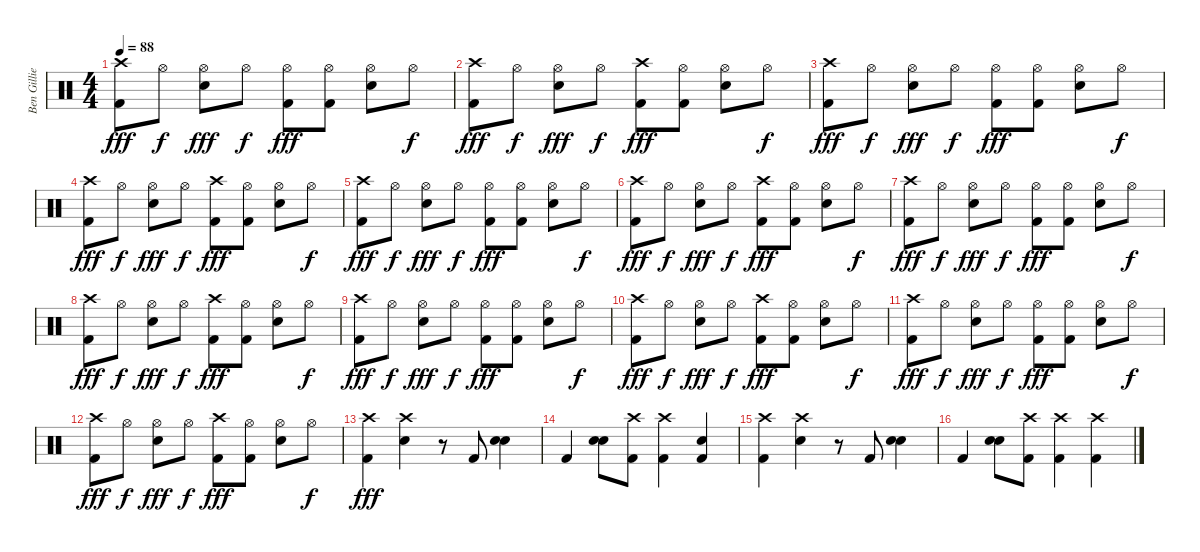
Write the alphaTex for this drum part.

\track ("Ben Gillies (Drums)" "Ben Gillie") {instrument percussion}
\staff {score}
\articulation defaults
\ts (4 4)
\tempo 88
\clef neutral
\ks c
("Crash high (hit)" "Kick (hit) 2").8{dy fff} "Hi-Hat (open)".8{dy f} ("Hi-Hat (open)" "Electric Snare (hit)").8{dy fff} "Hi-Hat (open)".8{dy f} ("Hi-Hat (open)" "Kick (hit) 2").8{dy fff} ("Hi-Hat (open)" "Kick (hit) 2").8 ("Hi-Hat (open)" "Electric Snare (hit)").8 "Hi-Hat (open)".8{dy f} |
("Crash high (hit)" "Kick (hit) 2").8{dy fff} "Hi-Hat (open)".8{dy f} ("Hi-Hat (open)" "Electric Snare (hit)").8{dy fff} "Hi-Hat (open)".8{dy f} ("Crash high (hit)" "Kick (hit) 2").8{dy fff} ("Hi-Hat (open)" "Kick (hit) 2").8 ("Hi-Hat (open)" "Electric Snare (hit)").8 "Hi-Hat (open)".8{dy f} |
("Crash high (hit)" "Kick (hit) 2").8{dy fff} "Hi-Hat (open)".8{dy f} ("Hi-Hat (open)" "Electric Snare (hit)").8{dy fff} "Hi-Hat (open)".8{dy f} ("Hi-Hat (open)" "Kick (hit) 2").8{dy fff} ("Hi-Hat (open)" "Kick (hit) 2").8 ("Hi-Hat (open)" "Electric Snare (hit)").8 "Hi-Hat (open)".8{dy f} |
("Crash high (hit)" "Kick (hit) 2").8{dy fff} "Hi-Hat (open)".8{dy f} ("Hi-Hat (open)" "Electric Snare (hit)").8{dy fff} "Hi-Hat (open)".8{dy f} ("Crash high (hit)" "Kick (hit) 2").8{dy fff} ("Hi-Hat (open)" "Kick (hit) 2").8 ("Hi-Hat (open)" "Electric Snare (hit)").8 "Hi-Hat (open)".8{dy f} |
("Crash high (hit)" "Kick (hit) 2").8{dy fff} "Hi-Hat (open)".8{dy f} ("Hi-Hat (open)" "Electric Snare (hit)").8{dy fff} "Hi-Hat (open)".8{dy f} ("Hi-Hat (open)" "Kick (hit) 2").8{dy fff} ("Hi-Hat (open)" "Kick (hit) 2").8 ("Hi-Hat (open)" "Electric Snare (hit)").8 "Hi-Hat (open)".8{dy f} |
("Crash high (hit)" "Kick (hit) 2").8{dy fff} "Hi-Hat (open)".8{dy f} ("Hi-Hat (open)" "Electric Snare (hit)").8{dy fff} "Hi-Hat (open)".8{dy f} ("Crash high (hit)" "Kick (hit) 2").8{dy fff} ("Hi-Hat (open)" "Kick (hit) 2").8 ("Hi-Hat (open)" "Electric Snare (hit)").8 "Hi-Hat (open)".8{dy f} |
("Crash high (hit)" "Kick (hit) 2").8{dy fff} "Hi-Hat (open)".8{dy f} ("Hi-Hat (open)" "Electric Snare (hit)").8{dy fff} "Hi-Hat (open)".8{dy f} ("Hi-Hat (open)" "Kick (hit) 2").8{dy fff} ("Hi-Hat (open)" "Kick (hit) 2").8 ("Hi-Hat (open)" "Electric Snare (hit)").8 "Hi-Hat (open)".8{dy f} |
("Crash high (hit)" "Kick (hit) 2").8{dy fff} "Hi-Hat (open)".8{dy f} ("Hi-Hat (open)" "Electric Snare (hit)").8{dy fff} "Hi-Hat (open)".8{dy f} ("Crash high (hit)" "Kick (hit) 2").8{dy fff} ("Hi-Hat (open)" "Kick (hit) 2").8 ("Hi-Hat (open)" "Electric Snare (hit)").8 "Hi-Hat (open)".8{dy f} |
("Crash high (hit)" "Kick (hit) 2").8{dy fff} "Hi-Hat (open)".8{dy f} ("Hi-Hat (open)" "Electric Snare (hit)").8{dy fff} "Hi-Hat (open)".8{dy f} ("Hi-Hat (open)" "Kick (hit) 2").8{dy fff} ("Hi-Hat (open)" "Kick (hit) 2").8 ("Hi-Hat (open)" "Electric Snare (hit)").8 "Hi-Hat (open)".8{dy f} |
("Crash high (hit)" "Kick (hit) 2").8{dy fff} "Hi-Hat (open)".8{dy f} ("Hi-Hat (open)" "Electric Snare (hit)").8{dy fff} "Hi-Hat (open)".8{dy f} ("Crash high (hit)" "Kick (hit) 2").8{dy fff} ("Hi-Hat (open)" "Kick (hit) 2").8 ("Hi-Hat (open)" "Electric Snare (hit)").8 "Hi-Hat (open)".8{dy f} |
("Crash high (hit)" "Kick (hit) 2").8{dy fff} "Hi-Hat (open)".8{dy f} ("Hi-Hat (open)" "Electric Snare (hit)").8{dy fff} "Hi-Hat (open)".8{dy f} ("Hi-Hat (open)" "Kick (hit) 2").8{dy fff} ("Hi-Hat (open)" "Kick (hit) 2").8 ("Hi-Hat (open)" "Electric Snare (hit)").8 "Hi-Hat (open)".8{dy f} |
("Crash high (hit)" "Kick (hit) 2").8{dy fff} "Hi-Hat (open)".8{dy f} ("Hi-Hat (open)" "Electric Snare (hit)").8{dy fff} "Hi-Hat (open)".8{dy f} ("Crash high (hit)" "Kick (hit) 2").8{dy fff} ("Hi-Hat (open)" "Kick (hit) 2").8 ("Hi-Hat (open)" "Electric Snare (hit)").8 "Hi-Hat (open)".8{dy f} |
("Crash high (hit)" "Kick (hit) 2").4{dy fff} ("Crash high (hit)" "Electric Snare (hit)").4 r.8 "Kick (hit) 2".8 ("Electric Snare (hit)" "Electric Snare (hit)").4 |
"Kick (hit) 2".4 ("Electric Snare (hit)" "Electric Snare (hit)").8 ("Crash high (hit)" "Kick (hit) 2").8 ("Crash high (hit)" "Kick (hit) 2").4 ("Electric Snare (hit)" "Kick (hit) 2").4 |
("Crash high (hit)" "Kick (hit) 2").4 ("Crash high (hit)" "Electric Snare (hit)").4 r.8 "Kick (hit) 2".8 ("Electric Snare (hit)" "Electric Snare (hit)").4 |
"Kick (hit) 2".4 ("Electric Snare (hit)" "Electric Snare (hit)").8 ("Crash high (hit)" "Kick (hit) 2").8 ("Crash high (hit)" "Kick (hit) 2").4 ("Crash high (hit)" "Kick (hit) 2").4
